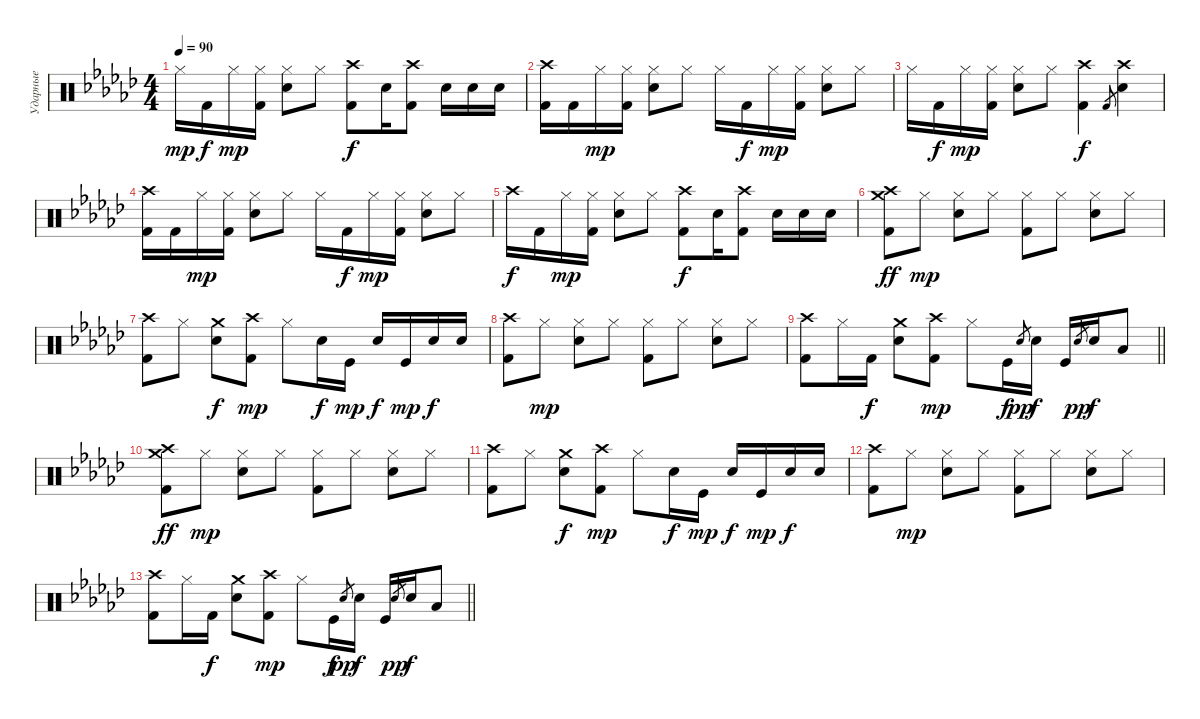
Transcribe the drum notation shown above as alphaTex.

\track ("Ударные" "Ударные") {instrument percussion}
\staff {score}
\articulation defaults
\ts (4 4)
\tempo 90
\clef neutral
\ks ebminor "Hi-Hat (closed)".16{dy mp} "Kick (hit) 2".16{dy f} "Hi-Hat (closed)".16{dy mp}
("Hi-Hat (closed)" "Kick (hit) 2").16 ("Hi-Hat (closed)" "Electric Snare (hit)").8 "Hi-Hat (closed)".8 ("Crash high (hit)" "Kick (hit) 2").8{dy f} "Electric Snare (hit)".16 ("Crash high (hit)" "Kick (hit) 2").8 "Electric Snare (hit)".16 "Electric Snare (hit)".16 "Electric Snare (hit)".16 |
("Crash high (hit)" "Kick (hit) 2").16 "Kick (hit) 2".16 "Hi-Hat (closed)".16{dy mp} ("Hi-Hat (closed)" "Kick (hit) 2").16 ("Hi-Hat (closed)" "Electric Snare (hit)").8 "Hi-Hat (closed)".8 "Hi-Hat (closed)".16 "Kick (hit) 2".16{dy f} "Hi-Hat (closed)".16{dy mp} ("Hi-Hat (closed)" "Kick (hit) 2").16 ("Hi-Hat (closed)" "Electric Snare (hit)").8 "Hi-Hat (closed)".8 |
"Hi-Hat (closed)".16 "Kick (hit) 2".16{dy f} "Hi-Hat (closed)".16{dy mp} ("Hi-Hat (closed)" "Kick (hit) 2").16 ("Hi-Hat (closed)" "Electric Snare (hit)").8 "Hi-Hat (closed)".8 ("Crash high (hit)" "Kick (hit) 2").4{dy f} "Kick (hit) 2".8{gr} ("Crash high (hit)" "Electric Snare (hit)").4 |
("Crash high (hit)" "Kick (hit) 2").16 "Kick (hit) 2".16 "Hi-Hat (closed)".16{dy mp} ("Hi-Hat (closed)" "Kick (hit) 2").16 ("Hi-Hat (closed)" "Electric Snare (hit)").8 "Hi-Hat (closed)".8 "Hi-Hat (closed)".16 "Kick (hit) 2".16{dy f} "Hi-Hat (closed)".16{dy mp} ("Hi-Hat (closed)" "Kick (hit) 2").16 ("Hi-Hat (closed)" "Electric Snare (hit)").8 "Hi-Hat (closed)".8 |
"Crash high (hit)".16{dy f} "Kick (hit) 2".16 "Hi-Hat (closed)".16{dy mp} ("Hi-Hat (closed)" "Kick (hit) 2").16 ("Hi-Hat (closed)" "Electric Snare (hit)").8 "Hi-Hat (closed)".8 ("Crash high (hit)" "Kick (hit) 2").8{dy f} "Electric Snare (hit)".16 ("Crash high (hit)" "Kick (hit) 2").8 "Electric Snare (hit)".16 "Electric Snare (hit)".16 "Electric Snare (hit)".16 |
("Crash high (hit)" "Kick (hit) 2" "Crash medium (hit)").8{dy ff} "Hi-Hat (closed)".8{dy mp} ("Hi-Hat (closed)" "Electric Snare (hit)").8 "Hi-Hat (closed)".8 ("Hi-Hat (closed)" "Kick (hit) 2").8 "Hi-Hat (closed)".8 ("Hi-Hat (closed)" "Electric Snare (hit)").8 "Hi-Hat (closed)".8 |
("Crash high (hit)" "Kick (hit) 2").8 "Hi-Hat (closed)".8 ("Crash medium (hit)" "Electric Snare (hit)").8{dy f} ("Crash high (hit)" "Kick (hit) 2").8{dy mp} "Hi-Hat (closed)".8 "Electric Snare (hit)".16{dy f} "Kick (hit)".16{dy mp} "Electric Snare (hit)".16{dy f} "Kick (hit)".16{dy mp} "Electric Snare (hit)".16{dy f} "Electric Snare (hit)".16 |
("Crash high (hit)" "Kick (hit) 2").8 "Hi-Hat (closed)".8{dy mp} ("Hi-Hat (closed)" "Electric Snare (hit)").8 "Hi-Hat (closed)".8 ("Hi-Hat (closed)" "Kick (hit) 2").8 "Hi-Hat (closed)".8 ("Hi-Hat (closed)" "Electric Snare (hit)").8 "Hi-Hat (closed)".8 |
\barLineRight lightlight
("Crash high (hit)" "Kick (hit) 2").8 "Hi-Hat (closed)".16 "Kick (hit) 2".16{dy f} ("Crash medium (hit)" "Electric Snare (hit)").8 ("Crash high (hit)" "Kick (hit) 2").8{dy mp} "Hi-Hat (closed)".8 "Kick (hit)".16{dy f} "Electric Snare (hit)"{x}.8{gr dy pp} "Electric Snare (hit)".16{dy f} "Kick (hit)".16 "Electric Snare (hit)"{x}.8{gr dy pp} "Electric Snare (hit)".16{dy f} "Low Tom (hit)".8 |
("Crash high (hit)" "Kick (hit) 2" "Crash medium (hit)").8{dy ff} "Hi-Hat (closed)".8{dy mp} ("Hi-Hat (closed)" "Electric Snare (hit)").8 "Hi-Hat (closed)".8 ("Hi-Hat (closed)" "Kick (hit) 2").8 "Hi-Hat (closed)".8 ("Hi-Hat (closed)" "Electric Snare (hit)").8 "Hi-Hat (closed)".8 |
("Crash high (hit)" "Kick (hit) 2").8 "Hi-Hat (closed)".8 ("Crash medium (hit)" "Electric Snare (hit)").8{dy f} ("Crash high (hit)" "Kick (hit) 2").8{dy mp} "Hi-Hat (closed)".8 "Electric Snare (hit)".16{dy f} "Kick (hit)".16{dy mp} "Electric Snare (hit)".16{dy f} "Kick (hit)".16{dy mp} "Electric Snare (hit)".16{dy f} "Electric Snare (hit)".16 |
("Crash high (hit)" "Kick (hit) 2").8 "Hi-Hat (closed)".8{dy mp} ("Hi-Hat (closed)" "Electric Snare (hit)").8 "Hi-Hat (closed)".8 ("Hi-Hat (closed)" "Kick (hit) 2").8 "Hi-Hat (closed)".8 ("Hi-Hat (closed)" "Electric Snare (hit)").8 "Hi-Hat (closed)".8 |
\barLineRight lightlight
("Crash high (hit)" "Kick (hit) 2").8 "Hi-Hat (closed)".16 "Kick (hit) 2".16{dy f} ("Crash medium (hit)" "Electric Snare (hit)").8 ("Crash high (hit)" "Kick (hit) 2").8{dy mp} "Hi-Hat (closed)".8 "Kick (hit)".16{dy f} "Electric Snare (hit)"{x}.8{gr dy pp} "Electric Snare (hit)".16{dy f} "Kick (hit)".16 "Electric Snare (hit)"{x}.8{gr dy pp} "Electric Snare (hit)".16{dy f} "Low Tom (hit)".8
